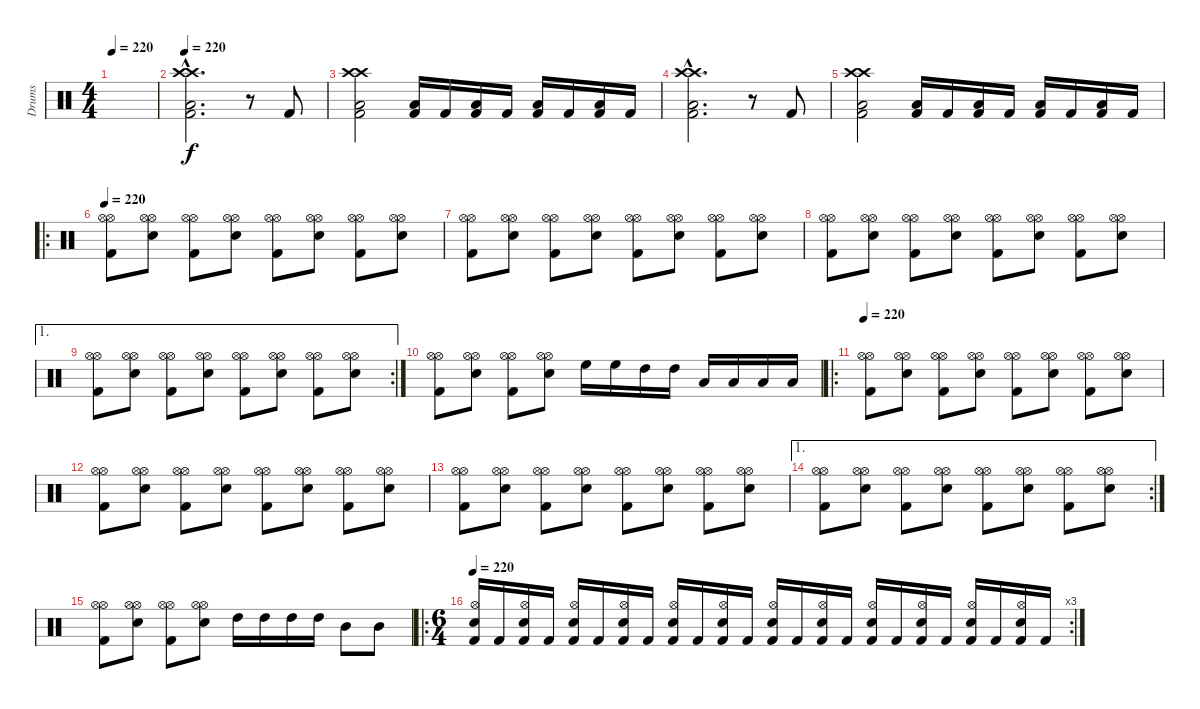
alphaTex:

\track ("Drums" "Drums") {instrument percussion}
\staff {score}
\articulation defaults
\ts (4 4)
\tempo 220
\clef neutral
\ks c
|
\tempo 220
("Crash high (hit)"{hac} "Crash high (hit)"{hac} "Low Floor Tom (hit)"{hac} "Kick (hit) 2"{hac}).2{d} r.8 "Kick (hit) 2".8 |
("Crash high (hit)" "Crash high (hit)" "Low Floor Tom (hit)" "Kick (hit) 2").2 ("Low Floor Tom (hit)" "Kick (hit) 2").16 "Kick (hit) 2".16 ("Low Floor Tom (hit)" "Kick (hit) 2").16 "Kick (hit) 2".16 ("Low Floor Tom (hit)" "Kick (hit) 2").16 "Kick (hit) 2".16 ("Low Floor Tom (hit)" "Kick (hit) 2").16 "Kick (hit) 2".16 |
("Crash high (hit)"{hac} "Crash high (hit)"{hac} "Low Floor Tom (hit)"{hac} "Kick (hit) 2"{hac}).2{d} r.8 "Kick (hit) 2".8 |
("Crash high (hit)" "Crash high (hit)" "Low Floor Tom (hit)" "Kick (hit) 2").2 ("Low Floor Tom (hit)" "Kick (hit) 2").16 "Kick (hit) 2".16 ("Low Floor Tom (hit)" "Kick (hit) 2").16 "Kick (hit) 2".16 ("Low Floor Tom (hit)" "Kick (hit) 2").16 "Kick (hit) 2".16 ("Low Floor Tom (hit)" "Kick (hit) 2").16 "Kick (hit) 2".16 |
\ro
\tempo 220
("Hi-Hat (open)" "Hi-Hat (open)" "Kick (hit) 2").8 ("Hi-Hat (open)" "Hi-Hat (open)" "Snare (hit) 2").8 ("Hi-Hat (open)" "Hi-Hat (open)" "Kick (hit) 2").8 ("Hi-Hat (open)" "Hi-Hat (open)" "Snare (hit) 2").8 ("Hi-Hat (open)" "Hi-Hat (open)" "Kick (hit) 2").8 ("Hi-Hat (open)" "Hi-Hat (open)" "Snare (hit) 2").8 ("Hi-Hat (open)" "Hi-Hat (open)" "Kick (hit) 2").8 ("Hi-Hat (open)" "Hi-Hat (open)" "Snare (hit) 2").8 |
("Hi-Hat (open)" "Hi-Hat (open)" "Kick (hit) 2").8 ("Hi-Hat (open)" "Hi-Hat (open)" "Snare (hit) 2").8 ("Hi-Hat (open)" "Hi-Hat (open)" "Kick (hit) 2").8 ("Hi-Hat (open)" "Hi-Hat (open)" "Snare (hit) 2").8 ("Hi-Hat (open)" "Hi-Hat (open)" "Kick (hit) 2").8 ("Hi-Hat (open)" "Hi-Hat (open)" "Snare (hit) 2").8 ("Hi-Hat (open)" "Hi-Hat (open)" "Kick (hit) 2").8 ("Hi-Hat (open)" "Hi-Hat (open)" "Snare (hit) 2").8 |
("Hi-Hat (open)" "Hi-Hat (open)" "Kick (hit) 2").8 ("Hi-Hat (open)" "Hi-Hat (open)" "Snare (hit) 2").8 ("Hi-Hat (open)" "Hi-Hat (open)" "Kick (hit) 2").8 ("Hi-Hat (open)" "Hi-Hat (open)" "Snare (hit) 2").8 ("Hi-Hat (open)" "Hi-Hat (open)" "Kick (hit) 2").8 ("Hi-Hat (open)" "Hi-Hat (open)" "Snare (hit) 2").8 ("Hi-Hat (open)" "Hi-Hat (open)" "Kick (hit) 2").8 ("Hi-Hat (open)" "Hi-Hat (open)" "Snare (hit) 2").8 |
\ae 1
\rc 2
("Hi-Hat (open)" "Hi-Hat (open)" "Kick (hit) 2").8 ("Hi-Hat (open)" "Hi-Hat (open)" "Snare (hit) 2").8 ("Hi-Hat (open)" "Hi-Hat (open)" "Kick (hit) 2").8 ("Hi-Hat (open)" "Hi-Hat (open)" "Snare (hit) 2").8 ("Hi-Hat (open)" "Hi-Hat (open)" "Kick (hit) 2").8 ("Hi-Hat (open)" "Hi-Hat (open)" "Snare (hit) 2").8 ("Hi-Hat (open)" "Hi-Hat (open)" "Kick (hit) 2").8 ("Hi-Hat (open)" "Hi-Hat (open)" "Snare (hit) 2").8 |
("Hi-Hat (open)" "Hi-Hat (open)" "Kick (hit) 2").8 ("Hi-Hat (open)" "Hi-Hat (open)" "Snare (hit) 2").8 ("Hi-Hat (open)" "Hi-Hat (open)" "Kick (hit) 2").8 ("Hi-Hat (open)" "Hi-Hat (open)" "Snare (hit) 2").8 "High Floor Tom (hit)".16 "High Floor Tom (hit)".16 "High Tom (hit)".16 "High Tom (hit)".16 "Low Tom (hit)".16 "Low Tom (hit)".16 "Low Floor Tom (hit)".16 "Low Floor Tom (hit)".16 |
\ro
\tempo 220
("Hi-Hat (open)" "Hi-Hat (open)" "Kick (hit) 2").8 ("Hi-Hat (open)" "Hi-Hat (open)" "Snare (hit) 2").8 ("Hi-Hat (open)" "Hi-Hat (open)" "Kick (hit) 2").8 ("Hi-Hat (open)" "Hi-Hat (open)" "Snare (hit) 2").8 ("Hi-Hat (open)" "Hi-Hat (open)" "Kick (hit) 2").8 ("Hi-Hat (open)" "Hi-Hat (open)" "Snare (hit) 2").8 ("Hi-Hat (open)" "Hi-Hat (open)" "Kick (hit) 2").8 ("Hi-Hat (open)" "Hi-Hat (open)" "Snare (hit) 2").8 |
("Hi-Hat (open)" "Hi-Hat (open)" "Kick (hit) 2").8 ("Hi-Hat (open)" "Hi-Hat (open)" "Snare (hit) 2").8 ("Hi-Hat (open)" "Hi-Hat (open)" "Kick (hit) 2").8 ("Hi-Hat (open)" "Hi-Hat (open)" "Snare (hit) 2").8 ("Hi-Hat (open)" "Hi-Hat (open)" "Kick (hit) 2").8 ("Hi-Hat (open)" "Hi-Hat (open)" "Snare (hit) 2").8 ("Hi-Hat (open)" "Hi-Hat (open)" "Kick (hit) 2").8 ("Hi-Hat (open)" "Hi-Hat (open)" "Snare (hit) 2").8 |
("Hi-Hat (open)" "Hi-Hat (open)" "Kick (hit) 2").8 ("Hi-Hat (open)" "Hi-Hat (open)" "Snare (hit) 2").8 ("Hi-Hat (open)" "Hi-Hat (open)" "Kick (hit) 2").8 ("Hi-Hat (open)" "Hi-Hat (open)" "Snare (hit) 2").8 ("Hi-Hat (open)" "Hi-Hat (open)" "Kick (hit) 2").8 ("Hi-Hat (open)" "Hi-Hat (open)" "Snare (hit) 2").8 ("Hi-Hat (open)" "Hi-Hat (open)" "Kick (hit) 2").8 ("Hi-Hat (open)" "Hi-Hat (open)" "Snare (hit) 2").8 |
\ae 1
\rc 2
("Hi-Hat (open)" "Hi-Hat (open)" "Kick (hit) 2").8 ("Hi-Hat (open)" "Hi-Hat (open)" "Snare (hit) 2").8 ("Hi-Hat (open)" "Hi-Hat (open)" "Kick (hit) 2").8 ("Hi-Hat (open)" "Hi-Hat (open)" "Snare (hit) 2").8 ("Hi-Hat (open)" "Hi-Hat (open)" "Kick (hit) 2").8 ("Hi-Hat (open)" "Hi-Hat (open)" "Snare (hit) 2").8 ("Hi-Hat (open)" "Hi-Hat (open)" "Kick (hit) 2").8 ("Hi-Hat (open)" "Hi-Hat (open)" "Snare (hit) 2").8 |
("Hi-Hat (open)" "Hi-Hat (open)" "Kick (hit) 2").8 ("Hi-Hat (open)" "Hi-Hat (open)" "Snare (hit) 2").8 ("Hi-Hat (open)" "Hi-Hat (open)" "Kick (hit) 2").8 ("Hi-Hat (open)" "Hi-Hat (open)" "Snare (hit) 2").8 "High Tom (hit)".16 "High Tom (hit)".16 "High Tom (hit)".16 "High Tom (hit)".16 "Mid Tom (hit)".8 "Mid Tom (hit)".8 |
\ro
\rc 3
\ts (6 4)
\tempo 220
("Hi-Hat (open)" "Snare (hit) 2" "Kick (hit) 2").16 "Kick (hit) 2".16 ("Hi-Hat (open)" "Snare (hit) 2" "Kick (hit) 2").16 "Kick (hit) 2".16 ("Hi-Hat (open)" "Snare (hit) 2" "Kick (hit) 2").16 "Kick (hit) 2".16 ("Hi-Hat (open)" "Snare (hit) 2" "Kick (hit) 2").16 "Kick (hit) 2".16 ("Hi-Hat (open)" "Snare (hit) 2" "Kick (hit) 2").16 "Kick (hit) 2".16 ("Hi-Hat (open)" "Snare (hit) 2" "Kick (hit) 2").16 "Kick (hit) 2".16 ("Hi-Hat (open)" "Snare (hit) 2" "Kick (hit) 2").16 "Kick (hit) 2".16 ("Hi-Hat (open)" "Snare (hit) 2" "Kick (hit) 2").16 "Kick (hit) 2".16 ("Hi-Hat (open)" "Snare (hit) 2" "Kick (hit) 2").16 "Kick (hit) 2".16 ("Hi-Hat (open)" "Snare (hit) 2" "Kick (hit) 2").16 "Kick (hit) 2".16 ("Hi-Hat (open)" "Snare (hit) 2" "Kick (hit) 2").16 "Kick (hit) 2".16 ("Hi-Hat (open)" "Snare (hit) 2" "Kick (hit) 2").16 "Kick (hit) 2".16
